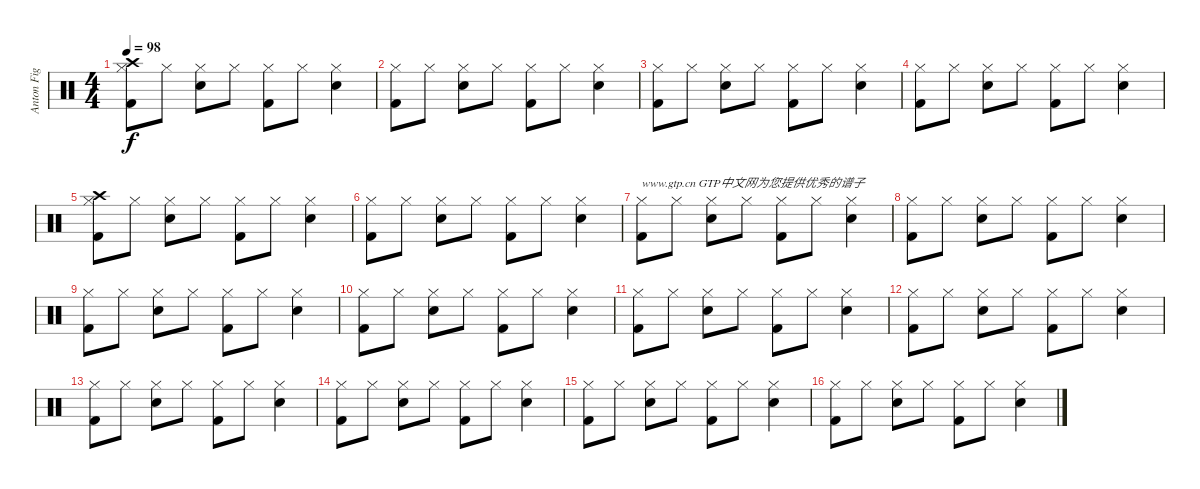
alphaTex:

\track ("Anton Fig" "Anton Fig") {instrument percussion}
\staff {score}
\articulation defaults
\ts (4 4)
\tempo 98
\clef neutral
\ks c
("Hi-Hat (closed)" "Crash high (hit)" "Kick (hit) 2").8{dy f} "Hi-Hat (closed)".8 ("Hi-Hat (closed)" "Snare (hit) 2").8 "Hi-Hat (closed)".8 ("Hi-Hat (closed)" "Kick (hit) 2").8 "Hi-Hat (closed)".8 ("Hi-Hat (closed)" "Snare (hit) 2").4 |
("Hi-Hat (closed)" "Kick (hit) 2").8 "Hi-Hat (closed)".8 ("Hi-Hat (closed)" "Snare (hit) 2").8 "Hi-Hat (closed)".8 ("Hi-Hat (closed)" "Kick (hit) 2").8 "Hi-Hat (closed)".8 ("Hi-Hat (closed)" "Snare (hit) 2").4 |
("Hi-Hat (closed)" "Kick (hit) 2").8 "Hi-Hat (closed)".8 ("Hi-Hat (closed)" "Snare (hit) 2").8 "Hi-Hat (closed)".8 ("Hi-Hat (closed)" "Kick (hit) 2").8 "Hi-Hat (closed)".8 ("Hi-Hat (closed)" "Snare (hit) 2").4 |
("Hi-Hat (closed)" "Kick (hit) 2").8 "Hi-Hat (closed)".8 ("Hi-Hat (closed)" "Snare (hit) 2").8 "Hi-Hat (closed)".8 ("Hi-Hat (closed)" "Kick (hit) 2").8 "Hi-Hat (closed)".8 ("Hi-Hat (closed)" "Snare (hit) 2").4 |
("Hi-Hat (closed)" "Crash high (hit)" "Kick (hit) 2").8 "Hi-Hat (closed)".8 ("Hi-Hat (closed)" "Snare (hit) 2").8 "Hi-Hat (closed)".8 ("Hi-Hat (closed)" "Kick (hit) 2").8 "Hi-Hat (closed)".8 ("Hi-Hat (closed)" "Snare (hit) 2").4 |
("Hi-Hat (closed)" "Kick (hit) 2").8 "Hi-Hat (closed)".8 ("Hi-Hat (closed)" "Snare (hit) 2").8 "Hi-Hat (closed)".8 ("Hi-Hat (closed)" "Kick (hit) 2").8 "Hi-Hat (closed)".8 ("Hi-Hat (closed)" "Snare (hit) 2").4 |
("Hi-Hat (closed)" "Kick (hit) 2").8{txt "www.gtp.cn GTP中文网为您提供优秀的谱子"} "Hi-Hat (closed)".8 ("Hi-Hat (closed)" "Snare (hit) 2").8 "Hi-Hat (closed)".8 ("Hi-Hat (closed)" "Kick (hit) 2").8 "Hi-Hat (closed)".8 ("Hi-Hat (closed)" "Snare (hit) 2").4 |
("Hi-Hat (closed)" "Kick (hit) 2").8 "Hi-Hat (closed)".8 ("Hi-Hat (closed)" "Snare (hit) 2").8 "Hi-Hat (closed)".8 ("Hi-Hat (closed)" "Kick (hit) 2").8 "Hi-Hat (closed)".8 ("Hi-Hat (closed)" "Snare (hit) 2").4 |
("Hi-Hat (closed)" "Kick (hit) 2").8 "Hi-Hat (closed)".8 ("Hi-Hat (closed)" "Snare (hit) 2").8 "Hi-Hat (closed)".8 ("Hi-Hat (closed)" "Kick (hit) 2").8 "Hi-Hat (closed)".8 ("Hi-Hat (closed)" "Snare (hit) 2").4 |
("Hi-Hat (closed)" "Kick (hit) 2").8 "Hi-Hat (closed)".8 ("Hi-Hat (closed)" "Snare (hit) 2").8 "Hi-Hat (closed)".8 ("Hi-Hat (closed)" "Kick (hit) 2").8 "Hi-Hat (closed)".8 ("Hi-Hat (closed)" "Snare (hit) 2").4 |
("Hi-Hat (closed)" "Kick (hit) 2").8 "Hi-Hat (closed)".8 ("Hi-Hat (closed)" "Snare (hit) 2").8 "Hi-Hat (closed)".8 ("Hi-Hat (closed)" "Kick (hit) 2").8 "Hi-Hat (closed)".8 ("Hi-Hat (closed)" "Snare (hit) 2").4 |
("Hi-Hat (closed)" "Kick (hit) 2").8 "Hi-Hat (closed)".8 ("Hi-Hat (closed)" "Snare (hit) 2").8 "Hi-Hat (closed)".8 ("Hi-Hat (closed)" "Kick (hit) 2").8 "Hi-Hat (closed)".8 ("Hi-Hat (closed)" "Snare (hit) 2").4 |
("Hi-Hat (closed)" "Kick (hit) 2").8 "Hi-Hat (closed)".8 ("Hi-Hat (closed)" "Snare (hit) 2").8 "Hi-Hat (closed)".8 ("Hi-Hat (closed)" "Kick (hit) 2").8 "Hi-Hat (closed)".8 ("Hi-Hat (closed)" "Snare (hit) 2").4 |
("Hi-Hat (closed)" "Kick (hit) 2").8 "Hi-Hat (closed)".8 ("Hi-Hat (closed)" "Snare (hit) 2").8 "Hi-Hat (closed)".8 ("Hi-Hat (closed)" "Kick (hit) 2").8 "Hi-Hat (closed)".8 ("Hi-Hat (closed)" "Snare (hit) 2").4 |
("Hi-Hat (closed)" "Kick (hit) 2").8 "Hi-Hat (closed)".8 ("Hi-Hat (closed)" "Snare (hit) 2").8 "Hi-Hat (closed)".8 ("Hi-Hat (closed)" "Kick (hit) 2").8 "Hi-Hat (closed)".8 ("Hi-Hat (closed)" "Snare (hit) 2").4 |
("Hi-Hat (closed)" "Kick (hit) 2").8 "Hi-Hat (closed)".8 ("Hi-Hat (closed)" "Snare (hit) 2").8 "Hi-Hat (closed)".8 ("Hi-Hat (closed)" "Kick (hit) 2").8 "Hi-Hat (closed)".8 ("Hi-Hat (closed)" "Snare (hit) 2").4
